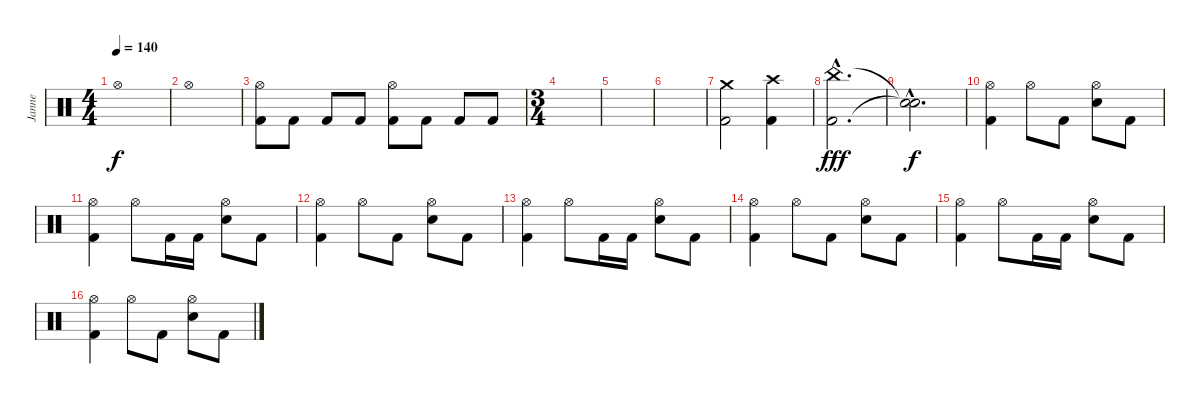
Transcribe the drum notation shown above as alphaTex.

\track ("Janne" "Janne") {instrument percussion}
\staff {score}
\articulation defaults
\ts (4 4)
\tempo 140
\clef neutral
\ks c "Hi-Hat (open)".1{dy f}
|
"Hi-Hat (open)".1 |
("Hi-Hat (open)" "Kick (hit) 2").8 "Kick (hit) 2".8 "Kick (hit) 2".8 "Kick (hit) 2".8 ("Hi-Hat (open)" "Kick (hit) 2").8 "Kick (hit) 2".8 "Kick (hit) 2".8 "Kick (hit) 2".8 |
\ts (3 4)
|
|
|
("Crash medium (hit)" "Kick (hit) 2").2 ("Crash high (hit)" "Kick (hit) 2").4 |
("China (hit)"{hac} "Kick (hit) 2"{hac}).2{d dy fff} |
("Snare (hit)"{hac t} "Snare (hit)"{hac t}).2{d dy f} |
("Hi-Hat (open)" "Kick (hit) 2").4 "Hi-Hat (open)".8 "Kick (hit) 2".8 ("Hi-Hat (open)" "Electric Snare (hit)").8 "Kick (hit) 2".8 |
("Hi-Hat (open)" "Kick (hit) 2").4 "Hi-Hat (open)".8 "Kick (hit) 2".16 "Kick (hit) 2".16 ("Hi-Hat (open)" "Electric Snare (hit)").8 "Kick (hit) 2".8 |
("Hi-Hat (open)" "Kick (hit) 2").4 "Hi-Hat (open)".8 "Kick (hit) 2".8 ("Hi-Hat (open)" "Electric Snare (hit)").8 "Kick (hit) 2".8 |
("Hi-Hat (open)" "Kick (hit) 2").4 "Hi-Hat (open)".8 "Kick (hit) 2".16 "Kick (hit) 2".16 ("Hi-Hat (open)" "Electric Snare (hit)").8 "Kick (hit) 2".8 |
("Hi-Hat (open)" "Kick (hit) 2").4 "Hi-Hat (open)".8 "Kick (hit) 2".8 ("Hi-Hat (open)" "Electric Snare (hit)").8 "Kick (hit) 2".8 |
("Hi-Hat (open)" "Kick (hit) 2").4 "Hi-Hat (open)".8 "Kick (hit) 2".16 "Kick (hit) 2".16 ("Hi-Hat (open)" "Electric Snare (hit)").8 "Kick (hit) 2".8 |
("Hi-Hat (open)" "Kick (hit) 2").4 "Hi-Hat (open)".8 "Kick (hit) 2".8 ("Hi-Hat (open)" "Electric Snare (hit)").8 "Kick (hit) 2".8
